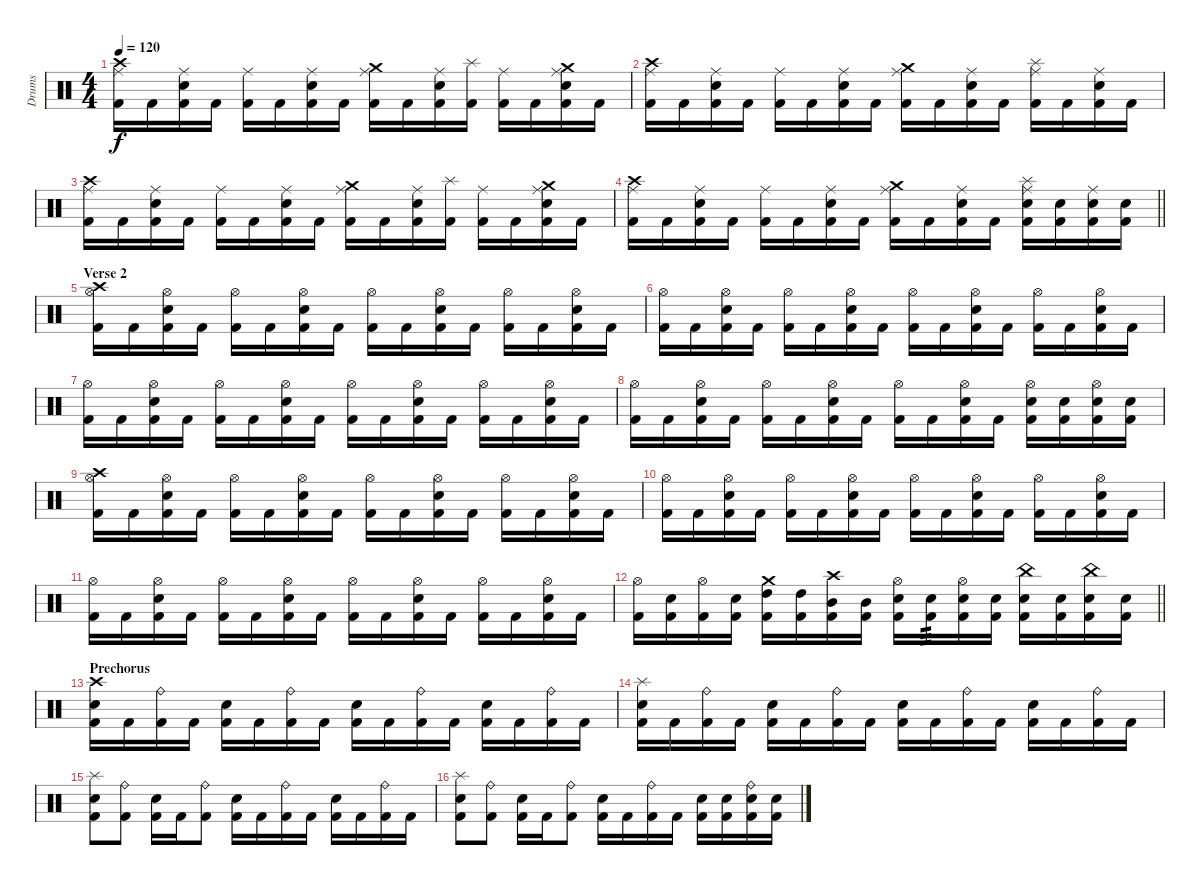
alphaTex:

\track ("Drums" "Drums") {instrument percussion}
\staff {score}
\articulation defaults
\ts (4 4)
\tempo 120
\clef neutral
\ks c
("Crash high (hit)" "Ride (middle)" "Kick (hit) 2").16{dy f} "Kick (hit) 2".16 ("Ride (middle)" "Snare (hit) 2" "Kick (hit) 2").16 "Kick (hit) 2".16 ("Ride (middle)" "Kick (hit) 2").16 "Kick (hit) 2".16 ("Ride (middle)" "Snare (hit) 2" "Kick (hit) 2").16 "Kick (hit) 2".16 ("Crash medium (hit)" "Ride (middle)" "Kick (hit) 2").16 "Kick (hit) 2".16 ("Ride (middle)" "Snare (hit) 2" "Kick (hit) 2").16 ("Splash (hit)" "Kick (hit) 2").16 ("Ride (middle)" "Kick (hit) 2").16 "Kick (hit) 2".16 ("Crash medium (hit)" "Ride (middle)" "Snare (hit) 2" "Kick (hit) 2").16 "Kick (hit) 2".16 |
("Crash high (hit)" "Ride (middle)" "Kick (hit) 2").16 "Kick (hit) 2".16 ("Ride (middle)" "Snare (hit) 2" "Kick (hit) 2").16 "Kick (hit) 2".16 ("Ride (middle)" "Kick (hit) 2").16 "Kick (hit) 2".16 ("Ride (middle)" "Snare (hit) 2" "Kick (hit) 2").16 "Kick (hit) 2".16 ("Crash medium (hit)" "Ride (middle)" "Kick (hit) 2").16 "Kick (hit) 2".16 ("Ride (middle)" "Snare (hit) 2" "Kick (hit) 2").16 "Kick (hit) 2".16 ("Splash (hit)" "Ride (middle)" "Kick (hit) 2").16 "Kick (hit) 2".16 ("Ride (middle)" "Snare (hit) 2" "Kick (hit) 2").16 "Kick (hit) 2".16 |
("Crash high (hit)" "Ride (middle)" "Kick (hit) 2").16 "Kick (hit) 2".16 ("Ride (middle)" "Snare (hit) 2" "Kick (hit) 2").16 "Kick (hit) 2".16 ("Ride (middle)" "Kick (hit) 2").16 "Kick (hit) 2".16 ("Ride (middle)" "Snare (hit) 2" "Kick (hit) 2").16 "Kick (hit) 2".16 ("Crash medium (hit)" "Ride (middle)" "Kick (hit) 2").16 "Kick (hit) 2".16 ("Ride (middle)" "Snare (hit) 2" "Kick (hit) 2").16 ("Splash (hit)" "Kick (hit) 2").16 ("Ride (middle)" "Kick (hit) 2").16 "Kick (hit) 2".16 ("Crash medium (hit)" "Ride (middle)" "Snare (hit) 2" "Kick (hit) 2").16 "Kick (hit) 2".16 |
\barLineRight lightlight
("Crash high (hit)" "Ride (middle)" "Kick (hit) 2").16 "Kick (hit) 2".16 ("Ride (middle)" "Snare (hit) 2" "Kick (hit) 2").16 "Kick (hit) 2".16 ("Ride (middle)" "Kick (hit) 2").16 "Kick (hit) 2".16 ("Ride (middle)" "Snare (hit) 2" "Kick (hit) 2").16 "Kick (hit) 2".16 ("Crash medium (hit)" "Ride (middle)" "Kick (hit) 2").16 "Kick (hit) 2".16 ("Ride (middle)" "Snare (hit) 2" "Kick (hit) 2").16 "Kick (hit) 2".16 ("Splash (hit)" "Ride (middle)" "Snare (hit) 2" "Kick (hit) 2").16 ("Snare (hit) 2" "Kick (hit) 2").16 ("Ride (middle)" "Snare (hit) 2" "Kick (hit) 2").16 ("Snare (hit) 2" "Kick (hit) 2").16 |
\section ("" "Verse 2")
("Crash high (hit)" "Hi-Hat (open)" "Kick (hit) 2").16 "Kick (hit) 2".16 ("Hi-Hat (open)" "Snare (hit) 2" "Kick (hit) 2").16 "Kick (hit) 2".16 ("Hi-Hat (open)" "Kick (hit) 2").16 "Kick (hit) 2".16 ("Hi-Hat (open)" "Snare (hit) 2" "Kick (hit) 2").16 "Kick (hit) 2".16 ("Hi-Hat (open)" "Kick (hit) 2").16 "Kick (hit) 2".16 ("Hi-Hat (open)" "Snare (hit) 2" "Kick (hit) 2").16 "Kick (hit) 2".16 ("Hi-Hat (open)" "Kick (hit) 2").16 "Kick (hit) 2".16 ("Hi-Hat (open)" "Snare (hit) 2" "Kick (hit) 2").16 "Kick (hit) 2".16 |
("Hi-Hat (open)" "Kick (hit) 2").16 "Kick (hit) 2".16 ("Hi-Hat (open)" "Snare (hit) 2" "Kick (hit) 2").16 "Kick (hit) 2".16 ("Hi-Hat (open)" "Kick (hit) 2").16 "Kick (hit) 2".16 ("Hi-Hat (open)" "Snare (hit) 2" "Kick (hit) 2").16 "Kick (hit) 2".16 ("Hi-Hat (open)" "Kick (hit) 2").16 "Kick (hit) 2".16 ("Hi-Hat (open)" "Snare (hit) 2" "Kick (hit) 2").16 "Kick (hit) 2".16 ("Hi-Hat (open)" "Kick (hit) 2").16 "Kick (hit) 2".16 ("Hi-Hat (open)" "Snare (hit) 2" "Kick (hit) 2").16 "Kick (hit) 2".16 |
("Hi-Hat (open)" "Kick (hit) 2").16 "Kick (hit) 2".16 ("Hi-Hat (open)" "Snare (hit) 2" "Kick (hit) 2").16 "Kick (hit) 2".16 ("Hi-Hat (open)" "Kick (hit) 2").16 "Kick (hit) 2".16 ("Hi-Hat (open)" "Snare (hit) 2" "Kick (hit) 2").16 "Kick (hit) 2".16 ("Hi-Hat (open)" "Kick (hit) 2").16 "Kick (hit) 2".16 ("Hi-Hat (open)" "Snare (hit) 2" "Kick (hit) 2").16 "Kick (hit) 2".16 ("Hi-Hat (open)" "Kick (hit) 2").16 "Kick (hit) 2".16 ("Hi-Hat (open)" "Snare (hit) 2" "Kick (hit) 2").16 "Kick (hit) 2".16 |
("Hi-Hat (open)" "Kick (hit) 2").16 "Kick (hit) 2".16 ("Hi-Hat (open)" "Snare (hit) 2" "Kick (hit) 2").16 "Kick (hit) 2".16 ("Hi-Hat (open)" "Kick (hit) 2").16 "Kick (hit) 2".16 ("Hi-Hat (open)" "Snare (hit) 2" "Kick (hit) 2").16 "Kick (hit) 2".16 ("Hi-Hat (open)" "Kick (hit) 2").16 "Kick (hit) 2".16 ("Hi-Hat (open)" "Snare (hit) 2" "Kick (hit) 2").16 "Kick (hit) 2".16 ("Hi-Hat (open)" "Snare (hit) 2" "Kick (hit) 2").16 ("Snare (hit) 2" "Kick (hit) 2").16 ("Hi-Hat (open)" "Snare (hit) 2" "Kick (hit) 2").16 ("Snare (hit) 2" "Kick (hit) 2").16 |
("Crash high (hit)" "Hi-Hat (open)" "Kick (hit) 2").16 "Kick (hit) 2".16 ("Hi-Hat (open)" "Snare (hit) 2" "Kick (hit) 2").16 "Kick (hit) 2".16 ("Hi-Hat (open)" "Kick (hit) 2").16 "Kick (hit) 2".16 ("Hi-Hat (open)" "Snare (hit) 2" "Kick (hit) 2").16 "Kick (hit) 2".16 ("Hi-Hat (open)" "Kick (hit) 2").16 "Kick (hit) 2".16 ("Hi-Hat (open)" "Snare (hit) 2" "Kick (hit) 2").16 "Kick (hit) 2".16 ("Hi-Hat (open)" "Kick (hit) 2").16 "Kick (hit) 2".16 ("Hi-Hat (open)" "Snare (hit) 2" "Kick (hit) 2").16 "Kick (hit) 2".16 |
("Hi-Hat (open)" "Kick (hit) 2").16 "Kick (hit) 2".16 ("Hi-Hat (open)" "Snare (hit) 2" "Kick (hit) 2").16 "Kick (hit) 2".16 ("Hi-Hat (open)" "Kick (hit) 2").16 "Kick (hit) 2".16 ("Hi-Hat (open)" "Snare (hit) 2" "Kick (hit) 2").16 "Kick (hit) 2".16 ("Hi-Hat (open)" "Kick (hit) 2").16 "Kick (hit) 2".16 ("Hi-Hat (open)" "Snare (hit) 2" "Kick (hit) 2").16 "Kick (hit) 2".16 ("Hi-Hat (open)" "Kick (hit) 2").16 "Kick (hit) 2".16 ("Hi-Hat (open)" "Snare (hit) 2" "Kick (hit) 2").16 "Kick (hit) 2".16 |
("Hi-Hat (open)" "Kick (hit) 2").16 "Kick (hit) 2".16 ("Hi-Hat (open)" "Snare (hit) 2" "Kick (hit) 2").16 "Kick (hit) 2".16 ("Hi-Hat (open)" "Kick (hit) 2").16 "Kick (hit) 2".16 ("Hi-Hat (open)" "Snare (hit) 2" "Kick (hit) 2").16 "Kick (hit) 2".16 ("Hi-Hat (open)" "Kick (hit) 2").16 "Kick (hit) 2".16 ("Hi-Hat (open)" "Snare (hit) 2" "Kick (hit) 2").16 "Kick (hit) 2".16 ("Hi-Hat (open)" "Kick (hit) 2").16 "Kick (hit) 2".16 ("Hi-Hat (open)" "Snare (hit) 2" "Kick (hit) 2").16 "Kick (hit) 2".16 |
\barLineRight lightlight
("Hi-Hat (open)" "Kick (hit) 2").16 ("Snare (hit) 2" "Kick (hit) 2").16 ("Hi-Hat (open)" "Kick (hit) 2").16 ("Snare (hit) 2" "Kick (hit) 2").16 ("Crash medium (hit)" "High Tom (hit)" "Kick (hit) 2").16 ("High Tom (hit)" "Kick (hit) 2").16 ("Crash high (hit)" "Mid Tom (hit)" "Kick (hit) 2").16 ("Mid Tom (hit)" "Kick (hit) 2").16 ("Hi-Hat (open)" "Snare (hit) 2" "Kick (hit) 2").16 ("Snare (hit) 2" "Kick (hit) 2").16{tp 3} ("Hi-Hat (open)" "Snare (hit) 2" "Kick (hit) 2").16 ("Snare (hit) 2" "Kick (hit) 2").16 ("China (hit)" "Snare (hit) 2" "Kick (hit) 2").16 ("Snare (hit) 2" "Kick (hit) 2").16 ("China (hit)" "Snare (hit) 2" "Kick (hit) 2").16 ("Snare (hit) 2" "Kick (hit) 2").16 |
\section ("" "Prechorus")
("Crash high (hit)" "Snare (hit) 2" "Kick (hit) 2").16 "Kick (hit) 2".16 ("Ride (bell)" "Kick (hit) 2").16 "Kick (hit) 2".16 ("Snare (hit) 2" "Kick (hit) 2").16 "Kick (hit) 2".16 ("Ride (bell)" "Kick (hit) 2").16 "Kick (hit) 2".16 ("Snare (hit) 2" "Kick (hit) 2").16 "Kick (hit) 2".16 ("Ride (bell)" "Kick (hit) 2").16 "Kick (hit) 2".16 ("Snare (hit) 2" "Kick (hit) 2").16 "Kick (hit) 2".16 ("Ride (bell)" "Kick (hit) 2").16 "Kick (hit) 2".16 |
("Splash (hit)" "Snare (hit) 2" "Kick (hit) 2").16 "Kick (hit) 2".16 ("Ride (bell)" "Kick (hit) 2").16 "Kick (hit) 2".16 ("Snare (hit) 2" "Kick (hit) 2").16 "Kick (hit) 2".16 ("Ride (bell)" "Kick (hit) 2").16 "Kick (hit) 2".16 ("Snare (hit) 2" "Kick (hit) 2").16 "Kick (hit) 2".16 ("Ride (bell)" "Kick (hit) 2").16 "Kick (hit) 2".16 ("Snare (hit) 2" "Kick (hit) 2").16 "Kick (hit) 2".16 ("Ride (bell)" "Kick (hit) 2").16 "Kick (hit) 2".16 |
("Splash (hit)" "Snare (hit) 2" "Kick (hit) 2").8 ("Ride (bell)" "Kick (hit) 2").8 ("Snare (hit) 2" "Kick (hit) 2").16 "Kick (hit) 2".16 ("Ride (bell)" "Kick (hit) 2").8 ("Snare (hit) 2" "Kick (hit) 2").16 "Kick (hit) 2".16 ("Ride (bell)" "Kick (hit) 2").16 "Kick (hit) 2".16 ("Snare (hit) 2" "Kick (hit) 2").16 "Kick (hit) 2".16 ("Ride (bell)" "Kick (hit) 2").16 "Kick (hit) 2".16 |
("Splash (hit)" "Snare (hit) 2" "Kick (hit) 2").8 ("Ride (bell)" "Kick (hit) 2").8 ("Snare (hit) 2" "Kick (hit) 2").16 "Kick (hit) 2".16 ("Ride (bell)" "Kick (hit) 2").8 ("Snare (hit) 2" "Kick (hit) 2").16 "Kick (hit) 2".16 ("Ride (bell)" "Kick (hit) 2").16 "Kick (hit) 2".16 ("Snare (hit) 2" "Kick (hit) 2").16 ("Snare (hit) 2" "Kick (hit) 2").16 ("Ride (bell)" "Snare (hit) 2" "Kick (hit) 2").16 ("Snare (hit) 2" "Kick (hit) 2").16
